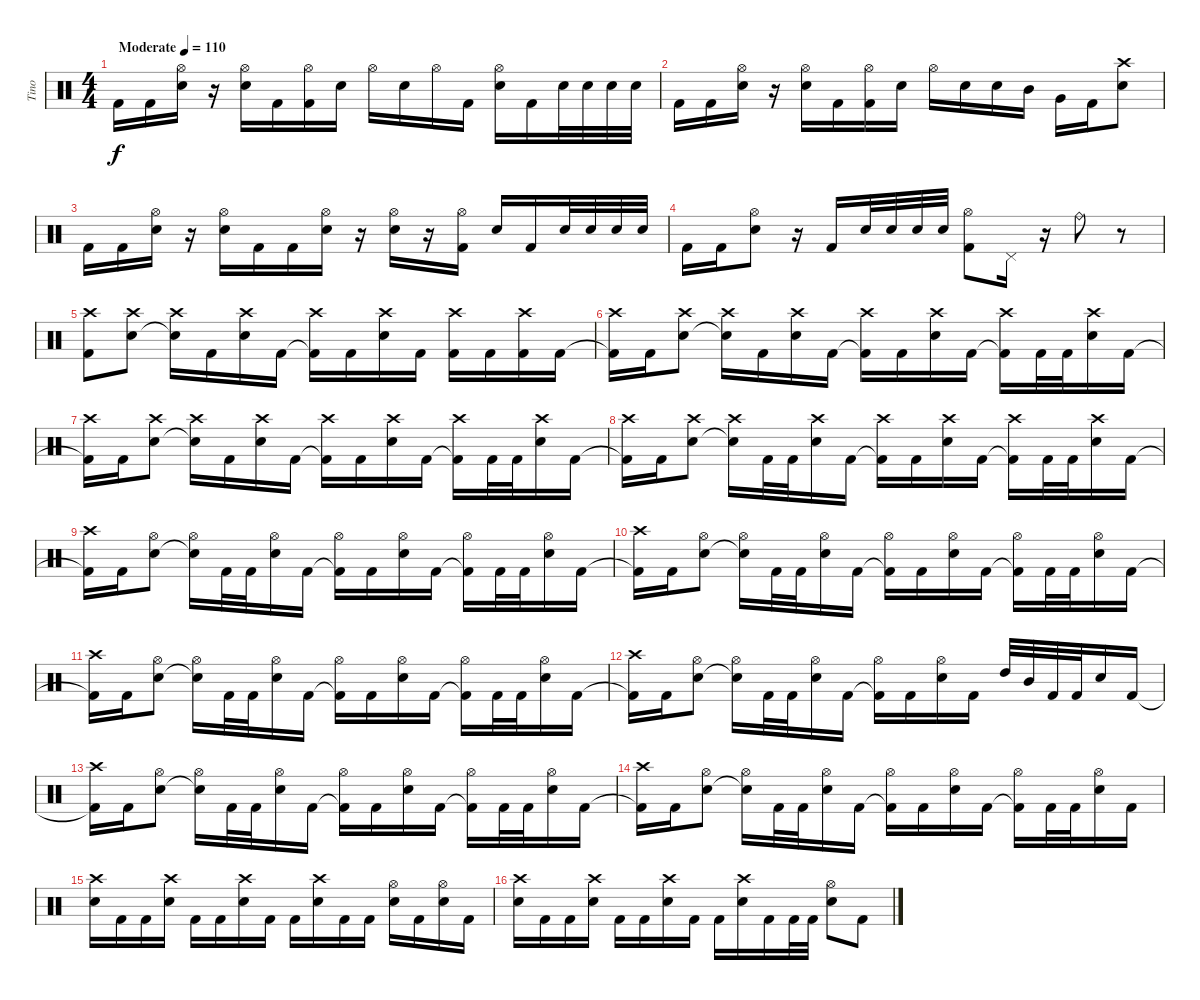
\track ("Tino" "Tino") {instrument percussion}
\staff {score}
\articulation defaults
\ts (4 4)
\tempo (110 "Moderate")
\clef neutral
\ks c "Kick (hit) 2".16{dy f} "Kick (hit) 2".16
("Electric Snare (hit)" "Hi-Hat (open)").16 r.16 ("Electric Snare (hit)" "Hi-Hat (open)").16 "Kick (hit) 2".16 ("Kick (hit) 2" "Hi-Hat (open)").16 "Electric Snare (hit)".16 "Hi-Hat (open)".16 "Electric Snare (hit)".16 "Hi-Hat (open)".16 "Kick (hit) 2".16 ("Electric Snare (hit)" "Hi-Hat (open)").16 "Kick (hit) 2".16 "Electric Snare (hit)".32 "Electric Snare (hit)".32 "Electric Snare (hit)".32 "Electric Snare (hit)".32 |
"Kick (hit) 2".16 "Kick (hit) 2".16 ("Electric Snare (hit)" "Hi-Hat (open)").16 r.16 ("Electric Snare (hit)" "Hi-Hat (open)").16 "Kick (hit) 2".16 ("Kick (hit) 2" "Hi-Hat (open)").16 "Electric Snare (hit)".16 "Hi-Hat (open)".16 "Electric Snare (hit)".16 "Electric Snare (hit)".16 "Mid Tom (hit)".16 "Very Low Tom (hit)".16 "Kick (hit) 2".16 ("Electric Snare (hit)" "Crash high (hit)").8 |
"Kick (hit) 2".16 "Kick (hit) 2".16 ("Electric Snare (hit)" "Hi-Hat (open)").16 r.16 ("Electric Snare (hit)" "Hi-Hat (open)").16 "Kick (hit) 2".16 "Kick (hit) 2".16 ("Electric Snare (hit)" "Hi-Hat (open)").16 r.16 ("Electric Snare (hit)" "Hi-Hat (open)").16 r.16 ("Kick (hit) 2" "Hi-Hat (open)").16 "Electric Snare (hit)".16 "Kick (hit) 2".16 "Electric Snare (hit)".32 "Electric Snare (hit)".32 "Electric Snare (hit)".32 "Electric Snare (hit)".32 |
"Kick (hit) 2".16 "Kick (hit) 2".16 ("Electric Snare (hit)" "Hi-Hat (open)").8 r.16 "Kick (hit) 2".16 "Electric Snare (hit)".32 "Electric Snare (hit)".32 "Electric Snare (hit)".32 "Electric Snare (hit)".32 ("Kick (hit) 2" "Hi-Hat (open)").8 "Pedal Hi-Hat (hit)".16 r.16 "Ride (bell)".8 r.8 |
("Kick (hit) 2" "Crash high (hit)").8 ("Electric Snare (hit)" "Crash high (hit)").8 ("Electric Snare (hit)"{t} "Crash high (hit)").16 "Kick (hit) 2".16 ("Electric Snare (hit)" "Crash high (hit)").16 "Kick (hit) 2".16 ("Kick (hit) 2"{t} "Crash high (hit)").16 "Kick (hit) 2".16 ("Electric Snare (hit)" "Crash high (hit)").16 "Kick (hit) 2".16 ("Kick (hit) 2" "Crash high (hit)").16 "Kick (hit) 2".16 ("Kick (hit) 2" "Crash high (hit)").16 "Kick (hit) 2".16 |
("Kick (hit) 2"{t} "Crash high (hit)").16 "Kick (hit) 2".16 ("Electric Snare (hit)" "Crash high (hit)").8 ("Electric Snare (hit)"{t} "Crash high (hit)").16 "Kick (hit) 2".16 ("Electric Snare (hit)" "Crash high (hit)").16 "Kick (hit) 2".16 ("Kick (hit) 2"{t} "Crash high (hit)").16 "Kick (hit) 2".16 ("Electric Snare (hit)" "Crash high (hit)").16 "Kick (hit) 2".16 ("Kick (hit) 2"{t} "Crash high (hit)").16 "Kick (hit) 2".32 "Kick (hit) 2".32 ("Electric Snare (hit)" "Crash high (hit)").16 "Kick (hit) 2".16 |
("Kick (hit) 2"{t} "Crash high (hit)").16 "Kick (hit) 2".16 ("Electric Snare (hit)" "Crash high (hit)").8 ("Electric Snare (hit)"{t} "Crash high (hit)").16 "Kick (hit) 2".16 ("Electric Snare (hit)" "Crash high (hit)").16 "Kick (hit) 2".16 ("Kick (hit) 2"{t} "Crash high (hit)").16 "Kick (hit) 2".16 ("Electric Snare (hit)" "Crash high (hit)").16 "Kick (hit) 2".16 ("Kick (hit) 2"{t} "Crash high (hit)").16 "Kick (hit) 2".32 "Kick (hit) 2".32 ("Electric Snare (hit)" "Crash high (hit)").16 "Kick (hit) 2".16 |
("Kick (hit) 2"{t} "Crash high (hit)").16 "Kick (hit) 2".16 ("Electric Snare (hit)" "Crash high (hit)").8 ("Electric Snare (hit)"{t} "Crash high (hit)").16 "Kick (hit) 2".32 "Kick (hit) 2".32 ("Electric Snare (hit)" "Crash high (hit)").16 "Kick (hit) 2".16 ("Kick (hit) 2"{t} "Crash high (hit)").16 "Kick (hit) 2".16 ("Electric Snare (hit)" "Crash high (hit)").16 "Kick (hit) 2".16 ("Kick (hit) 2"{t} "Crash high (hit)").16 "Kick (hit) 2".32 "Kick (hit) 2".32 ("Electric Snare (hit)" "Crash high (hit)").16 "Kick (hit) 2".16 |
("Kick (hit) 2"{t} "Crash high (hit)").16 "Kick (hit) 2".16 ("Electric Snare (hit)" "Hi-Hat (open)").8 ("Electric Snare (hit)"{t} "Hi-Hat (open)").16 "Kick (hit) 2".32 "Kick (hit) 2".32 ("Electric Snare (hit)" "Hi-Hat (open)").16 "Kick (hit) 2".16 ("Kick (hit) 2"{t} "Hi-Hat (open)").16 "Kick (hit) 2".16 ("Electric Snare (hit)" "Hi-Hat (open)").16 "Kick (hit) 2".16 ("Kick (hit) 2"{t} "Hi-Hat (open)").16 "Kick (hit) 2".32 "Kick (hit) 2".32 ("Electric Snare (hit)" "Hi-Hat (open)").16 "Kick (hit) 2".16 |
("Kick (hit) 2"{t} "Crash high (hit)").16 "Kick (hit) 2".16 ("Electric Snare (hit)" "Hi-Hat (open)").8 ("Electric Snare (hit)"{t} "Hi-Hat (open)").16 "Kick (hit) 2".32 "Kick (hit) 2".32 ("Electric Snare (hit)" "Hi-Hat (open)").16 "Kick (hit) 2".16 ("Kick (hit) 2"{t} "Hi-Hat (open)").16 "Kick (hit) 2".16 ("Electric Snare (hit)" "Hi-Hat (open)").16 "Kick (hit) 2".16 ("Kick (hit) 2"{t} "Hi-Hat (open)").16 "Kick (hit) 2".32 "Kick (hit) 2".32 ("Electric Snare (hit)" "Hi-Hat (open)").16 "Kick (hit) 2".16 |
("Kick (hit) 2"{t} "Crash high (hit)").16 "Kick (hit) 2".16 ("Electric Snare (hit)" "Hi-Hat (open)").8 ("Electric Snare (hit)"{t} "Hi-Hat (open)").16 "Kick (hit) 2".32 "Kick (hit) 2".32 ("Electric Snare (hit)" "Hi-Hat (open)").16 "Kick (hit) 2".16 ("Kick (hit) 2"{t} "Hi-Hat (open)").16 "Kick (hit) 2".16 ("Electric Snare (hit)" "Hi-Hat (open)").16 "Kick (hit) 2".16 ("Kick (hit) 2"{t} "Hi-Hat (open)").16 "Kick (hit) 2".32 "Kick (hit) 2".32 ("Electric Snare (hit)" "Hi-Hat (open)").16 "Kick (hit) 2".16 |
("Kick (hit) 2"{t} "Crash high (hit)").16 "Kick (hit) 2".16 ("Electric Snare (hit)" "Hi-Hat (open)").8 ("Electric Snare (hit)"{t} "Hi-Hat (open)").16 "Kick (hit) 2".32 "Kick (hit) 2".32 ("Electric Snare (hit)" "Hi-Hat (open)").16 "Kick (hit) 2".16 ("Kick (hit) 2"{t} "Hi-Hat (open)").16 "Kick (hit) 2".16 ("Electric Snare (hit)" "Hi-Hat (open)").16 "Kick (hit) 2".16 "High Tom (hit)".32 "Mid Tom (hit)".32 "Kick (hit) 2".32 "Kick (hit) 2".32 "Electric Snare (hit)".16 "Kick (hit) 2".16 |
("Kick (hit) 2"{t} "Crash high (hit)").16 "Kick (hit) 2".16 ("Electric Snare (hit)" "Hi-Hat (open)").8 ("Electric Snare (hit)"{t} "Hi-Hat (open)").16 "Kick (hit) 2".32 "Kick (hit) 2".32 ("Electric Snare (hit)" "Hi-Hat (open)").16 "Kick (hit) 2".16 ("Kick (hit) 2"{t} "Hi-Hat (open)").16 "Kick (hit) 2".16 ("Electric Snare (hit)" "Hi-Hat (open)").16 "Kick (hit) 2".16 ("Kick (hit) 2"{t} "Hi-Hat (open)").16 "Kick (hit) 2".32 "Kick (hit) 2".32 ("Electric Snare (hit)" "Hi-Hat (open)").16 "Kick (hit) 2".16 |
("Kick (hit) 2"{t} "Crash high (hit)").16 "Kick (hit) 2".16 ("Electric Snare (hit)" "Hi-Hat (open)").8 ("Electric Snare (hit)"{t} "Hi-Hat (open)").16 "Kick (hit) 2".32 "Kick (hit) 2".32 ("Electric Snare (hit)" "Hi-Hat (open)").16 "Kick (hit) 2".16 ("Kick (hit) 2"{t} "Hi-Hat (open)").16 "Kick (hit) 2".16 ("Electric Snare (hit)" "Hi-Hat (open)").16 "Kick (hit) 2".16 ("Kick (hit) 2"{t} "Hi-Hat (open)").16 "Kick (hit) 2".32 "Kick (hit) 2".32 ("Electric Snare (hit)" "Hi-Hat (open)").16 "Kick (hit) 2".16 |
("Electric Snare (hit)" "Crash high (hit)").16 "Kick (hit) 2".16 "Kick (hit) 2".16 ("Electric Snare (hit)" "Crash high (hit)").16 "Kick (hit) 2".16 "Kick (hit) 2".16 ("Electric Snare (hit)" "Crash high (hit)").16 "Kick (hit) 2".16 "Kick (hit) 2".16 ("Electric Snare (hit)" "Crash high (hit)").16 "Kick (hit) 2".16 "Kick (hit) 2".16 ("Electric Snare (hit)" "Hi-Hat (open)").16 "Kick (hit) 2".16 ("Electric Snare (hit)" "Hi-Hat (open)").16 "Kick (hit) 2".16 |
("Electric Snare (hit)" "Crash high (hit)").16 "Kick (hit) 2".16 "Kick (hit) 2".16 ("Electric Snare (hit)" "Crash high (hit)").16 "Kick (hit) 2".16 "Kick (hit) 2".16 ("Electric Snare (hit)" "Crash high (hit)").16 "Kick (hit) 2".16 "Kick (hit) 2".16 ("Electric Snare (hit)" "Crash high (hit)").16 "Kick (hit) 2".16 "Kick (hit) 2".32 "Kick (hit) 2".32 ("Electric Snare (hit)" "Hi-Hat (open)").8 "Kick (hit) 2".8
